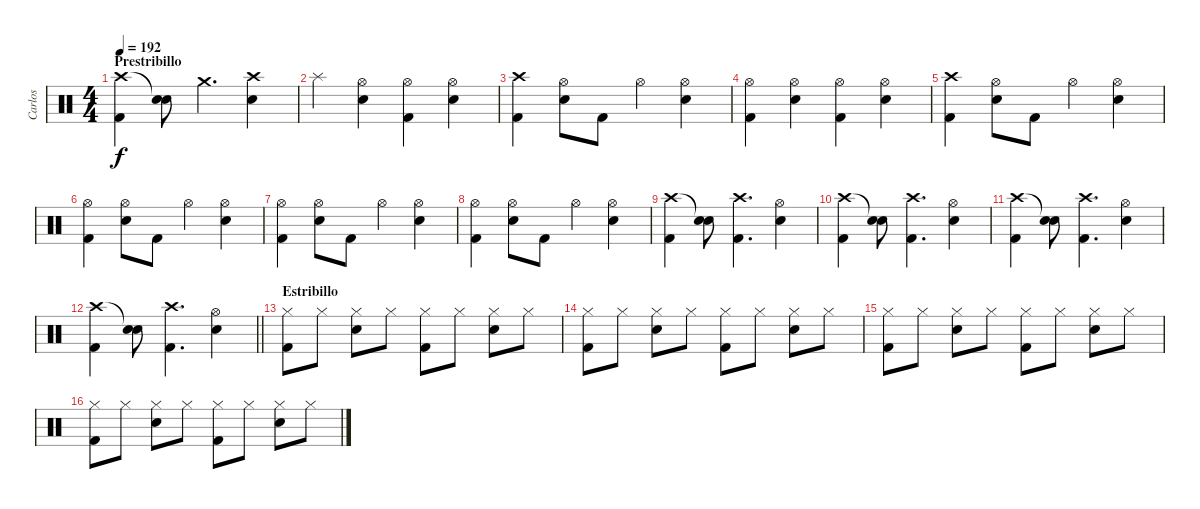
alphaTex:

\track ("Carlos" "Carlos") {instrument percussion}
\staff {score}
\articulation defaults
\ts (4 4)
\section ("" "Prestribillo")
\tempo 192
\clef neutral
\ks c
("Crash high (hit)" "Kick (hit) 2").4{dy f} ("Snare (hit)"{t} "Snare (hit) 2").8 "Crash medium (hit)".4{d} ("Crash high (hit)" "Snare (hit) 2").4 |
"Splash (hit)".4 ("Hi-Hat (open)" "Snare (hit) 2").4 ("Hi-Hat (open)" "Kick (hit) 2").4 ("Hi-Hat (open)" "Snare (hit) 2").4 |
("Crash high (hit)" "Kick (hit) 2").4 ("Hi-Hat (open)" "Snare (hit) 2").8 "Kick (hit) 2".8 "Hi-Hat (open)".4 ("Hi-Hat (open)" "Snare (hit) 2").4 |
("Hi-Hat (open)" "Kick (hit) 2").4 ("Hi-Hat (open)" "Snare (hit) 2").4 ("Hi-Hat (open)" "Kick (hit) 2").4 ("Hi-Hat (open)" "Snare (hit) 2").4 |
("Crash high (hit)" "Kick (hit) 2").4 ("Hi-Hat (open)" "Snare (hit) 2").8 "Kick (hit) 2".8 "Hi-Hat (open)".4 ("Hi-Hat (open)" "Snare (hit) 2").4 |
("Hi-Hat (open)" "Kick (hit) 2").4 ("Hi-Hat (open)" "Snare (hit) 2").8 "Kick (hit) 2".8 "Hi-Hat (open)".4 ("Hi-Hat (open)" "Snare (hit) 2").4 |
("Hi-Hat (open)" "Kick (hit) 2").4 ("Hi-Hat (open)" "Snare (hit) 2").8 "Kick (hit) 2".8 "Hi-Hat (open)".4 ("Hi-Hat (open)" "Snare (hit) 2").4 |
("Hi-Hat (open)" "Kick (hit) 2").4 ("Hi-Hat (open)" "Snare (hit) 2").8 "Kick (hit) 2".8 "Hi-Hat (open)".4 ("Hi-Hat (open)" "Snare (hit) 2").4 |
("Crash high (hit)" "Kick (hit) 2").4 ("Snare (hit)"{t} "Snare (hit) 2").8 ("Crash high (hit)" "Kick (hit) 2").4{d} ("Hi-Hat (open)" "Snare (hit) 2").4 |
("Crash high (hit)" "Kick (hit) 2").4 ("Snare (hit)"{t} "Snare (hit) 2").8 ("Crash high (hit)" "Kick (hit) 2").4{d} ("Hi-Hat (open)" "Snare (hit) 2").4 |
("Crash high (hit)" "Kick (hit) 2").4 ("Snare (hit)"{t} "Snare (hit) 2").8 ("Crash high (hit)" "Kick (hit) 2").4{d} ("Hi-Hat (open)" "Snare (hit) 2").4 |
\barLineRight lightlight
("Crash high (hit)" "Kick (hit) 2").4 ("Snare (hit)"{t} "Snare (hit) 2").8 ("Crash high (hit)" "Kick (hit) 2").4{d} ("Hi-Hat (open)" "Snare (hit) 2").4 |
\section ("" "Estribillo")
("Hi-Hat (closed)" "Kick (hit) 2").8 "Hi-Hat (closed)".8 ("Hi-Hat (closed)" "Snare (hit) 2").8 "Hi-Hat (closed)".8 ("Hi-Hat (closed)" "Kick (hit) 2").8 "Hi-Hat (closed)".8 ("Hi-Hat (closed)" "Snare (hit) 2").8 "Hi-Hat (closed)".8 |
("Hi-Hat (closed)" "Kick (hit) 2").8 "Hi-Hat (closed)".8 ("Hi-Hat (closed)" "Snare (hit) 2").8 "Hi-Hat (closed)".8 ("Hi-Hat (closed)" "Kick (hit) 2").8 "Hi-Hat (closed)".8 ("Hi-Hat (closed)" "Snare (hit) 2").8 "Hi-Hat (closed)".8 |
("Hi-Hat (closed)" "Kick (hit) 2").8 "Hi-Hat (closed)".8 ("Hi-Hat (closed)" "Snare (hit) 2").8 "Hi-Hat (closed)".8 ("Hi-Hat (closed)" "Kick (hit) 2").8 "Hi-Hat (closed)".8 ("Hi-Hat (closed)" "Snare (hit) 2").8 "Hi-Hat (closed)".8 |
("Hi-Hat (closed)" "Kick (hit) 2").8 "Hi-Hat (closed)".8 ("Hi-Hat (closed)" "Snare (hit) 2").8 "Hi-Hat (closed)".8 ("Hi-Hat (closed)" "Kick (hit) 2").8 "Hi-Hat (closed)".8 ("Hi-Hat (closed)" "Snare (hit) 2").8 "Hi-Hat (closed)".8
